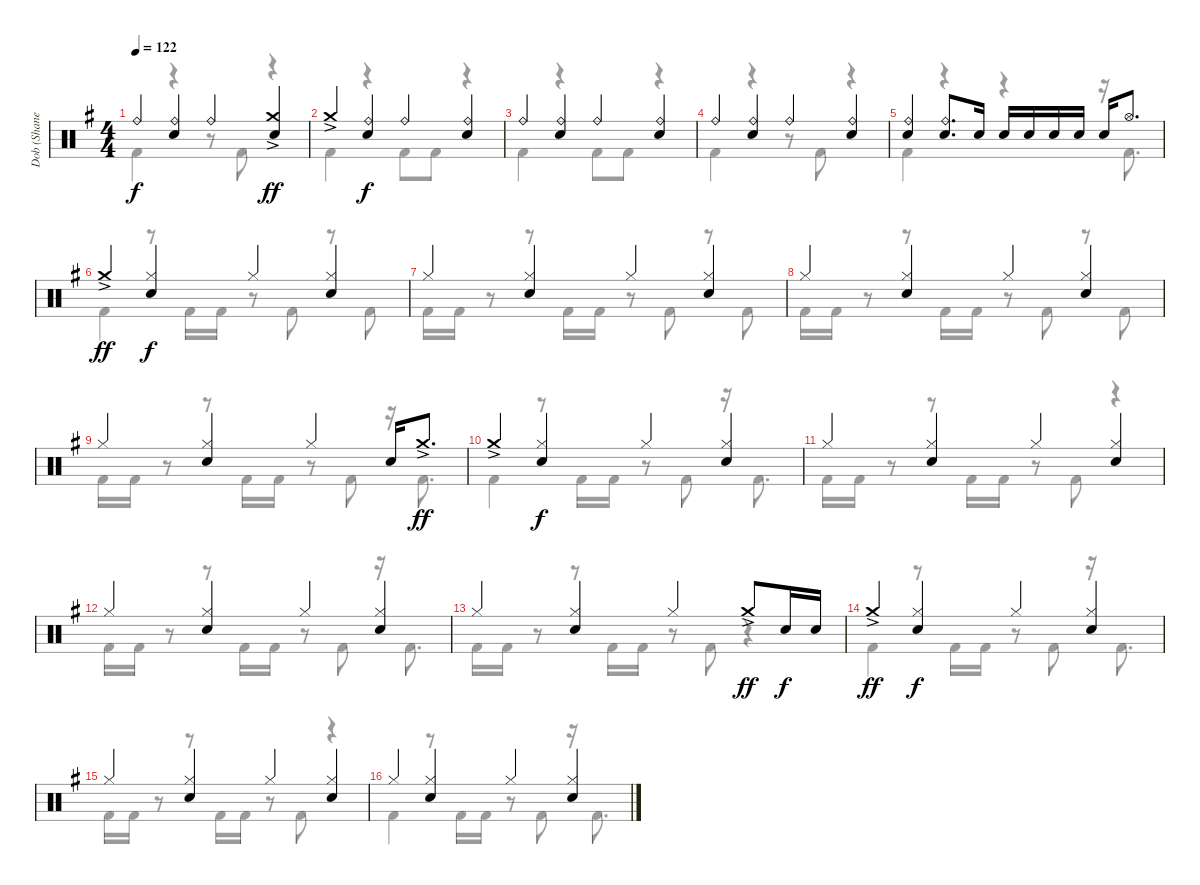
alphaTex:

\track ("Dob (Shane Gaalaas)" "Dob (Shane") {instrument percussion}
\staff {score}
\articulation defaults
\voice
\ts (4 4)
\tempo 122
\clef neutral
\ks g "Ride (bell)".4{dy f}
("Ride (bell)" "Electric Snare (hit)").4 "Ride (bell)".4 ("Crash medium (hit)"{ac} "Electric Snare (hit)").4{dy ff} |
"Crash medium (hit)"{ac}.4 ("Ride (bell)" "Electric Snare (hit)").4{dy f} "Ride (bell)".4 ("Ride (bell)" "Electric Snare (hit)").4 |
"Ride (bell)".4 ("Ride (bell)" "Electric Snare (hit)").4 "Ride (bell)".4 ("Ride (bell)" "Electric Snare (hit)").4 |
"Ride (bell)".4 ("Ride (bell)" "Electric Snare (hit)").4 "Ride (bell)".4 ("Ride (bell)" "Electric Snare (hit)").4 |
("Ride (bell)" "Electric Snare (hit)").4 ("Ride (bell)" "Electric Snare (hit)").8{d} "Electric Snare (hit)".16 "Electric Snare (hit)".16 "Electric Snare (hit)".16 "Electric Snare (hit)".16 "Electric Snare (hit)".16 "Electric Snare (hit)".16 "Hi-Hat (open)".8{d} |
"Crash medium (hit)"{ac}.4{dy ff} ("Hi-Hat (closed)" "Electric Snare (hit)").4{dy f} "Hi-Hat (closed)".4 ("Hi-Hat (closed)" "Electric Snare (hit)").4 |
"Hi-Hat (closed)".4 ("Hi-Hat (closed)" "Electric Snare (hit)").4 "Hi-Hat (closed)".4 ("Hi-Hat (closed)" "Electric Snare (hit)").4 |
"Hi-Hat (closed)".4 ("Hi-Hat (closed)" "Electric Snare (hit)").4 "Hi-Hat (closed)".4 ("Hi-Hat (closed)" "Electric Snare (hit)").4 |
"Hi-Hat (closed)".4 ("Hi-Hat (closed)" "Electric Snare (hit)").4 "Hi-Hat (closed)".4 "Electric Snare (hit)".16 "Crash medium (hit)"{ac}.8{d dy ff} |
"Crash medium (hit)"{ac}.4 ("Hi-Hat (closed)" "Electric Snare (hit)").4{dy f} "Hi-Hat (closed)".4 ("Hi-Hat (closed)" "Electric Snare (hit)").4 |
"Hi-Hat (closed)".4 ("Hi-Hat (closed)" "Electric Snare (hit)").4 "Hi-Hat (closed)".4 ("Hi-Hat (closed)" "Electric Snare (hit)").4 |
"Hi-Hat (closed)".4 ("Hi-Hat (closed)" "Electric Snare (hit)").4 "Hi-Hat (closed)".4 ("Hi-Hat (closed)" "Electric Snare (hit)").4 |
"Hi-Hat (closed)".4 ("Hi-Hat (closed)" "Electric Snare (hit)").4 "Hi-Hat (closed)".4 "Crash medium (hit)"{ac}.8{dy ff} "Electric Snare (hit)".16{dy f} "Electric Snare (hit)".16 |
"Crash medium (hit)"{ac}.4{dy ff} ("Hi-Hat (closed)" "Electric Snare (hit)").4{dy f} "Hi-Hat (closed)".4 ("Hi-Hat (closed)" "Electric Snare (hit)").4 |
"Hi-Hat (closed)".4 ("Hi-Hat (closed)" "Electric Snare (hit)").4 "Hi-Hat (closed)".4 ("Hi-Hat (closed)" "Electric Snare (hit)").4 |
"Hi-Hat (closed)".4 ("Hi-Hat (closed)" "Electric Snare (hit)").4 "Hi-Hat (closed)".4 ("Hi-Hat (closed)" "Electric Snare (hit)").4
\voice
\clef neutral
\ottava regular
\simile none
\ks g "Kick (hit) 2".4{dy f}
r.4 r.8 "Kick (hit) 2".8 r.4 |
"Kick (hit) 2".4 r.4 "Kick (hit) 2".8 "Kick (hit) 2".8 r.4 |
"Kick (hit) 2".4 r.4 "Kick (hit) 2".8 "Kick (hit) 2".8 r.4 |
"Kick (hit) 2".4 r.4 r.8 "Kick (hit) 2".8 r.4 |
"Kick (hit) 2".4 r.4 r.4 r.16 "Kick (hit) 2".8{d} |
"Kick (hit) 2".4 r.8 "Kick (hit) 2".16 "Kick (hit) 2".16 r.8 "Kick (hit) 2".8 r.8 "Kick (hit) 2".8 |
"Kick (hit) 2".16 "Kick (hit) 2".16 r.8 r.8 "Kick (hit) 2".16 "Kick (hit) 2".16 r.8 "Kick (hit) 2".8 r.8 "Kick (hit) 2".8 |
"Kick (hit) 2".16 "Kick (hit) 2".16 r.8 r.8 "Kick (hit) 2".16 "Kick (hit) 2".16 r.8 "Kick (hit) 2".8 r.8 "Kick (hit) 2".8 |
"Kick (hit) 2".16 "Kick (hit) 2".16 r.8 r.8 "Kick (hit) 2".16 "Kick (hit) 2".16 r.8 "Kick (hit) 2".8 r.16 "Kick (hit) 2".8{d} |
"Kick (hit) 2".4 r.8 "Kick (hit) 2".16 "Kick (hit) 2".16 r.8 "Kick (hit) 2".8 r.16 "Kick (hit) 2".8{d} |
"Kick (hit) 2".16 "Kick (hit) 2".16 r.8 r.8 "Kick (hit) 2".16 "Kick (hit) 2".16 r.8 "Kick (hit) 2".8 r.4 |
"Kick (hit) 2".16 "Kick (hit) 2".16 r.8 r.8 "Kick (hit) 2".16 "Kick (hit) 2".16 r.8 "Kick (hit) 2".8 r.16 "Kick (hit) 2".8{d} |
"Kick (hit) 2".16 "Kick (hit) 2".16 r.8 r.8 "Kick (hit) 2".16 "Kick (hit) 2".16 r.8 "Kick (hit) 2".8 r.4 |
"Kick (hit) 2".4 r.8 "Kick (hit) 2".16 "Kick (hit) 2".16 r.8 "Kick (hit) 2".8 r.16 "Kick (hit) 2".8{d} |
"Kick (hit) 2".16 "Kick (hit) 2".16 r.8 r.8 "Kick (hit) 2".16 "Kick (hit) 2".16 r.8 "Kick (hit) 2".8 r.4 |
"Kick (hit) 2".4 r.8 "Kick (hit) 2".16 "Kick (hit) 2".16 r.8 "Kick (hit) 2".8 r.16 "Kick (hit) 2".8{d}
